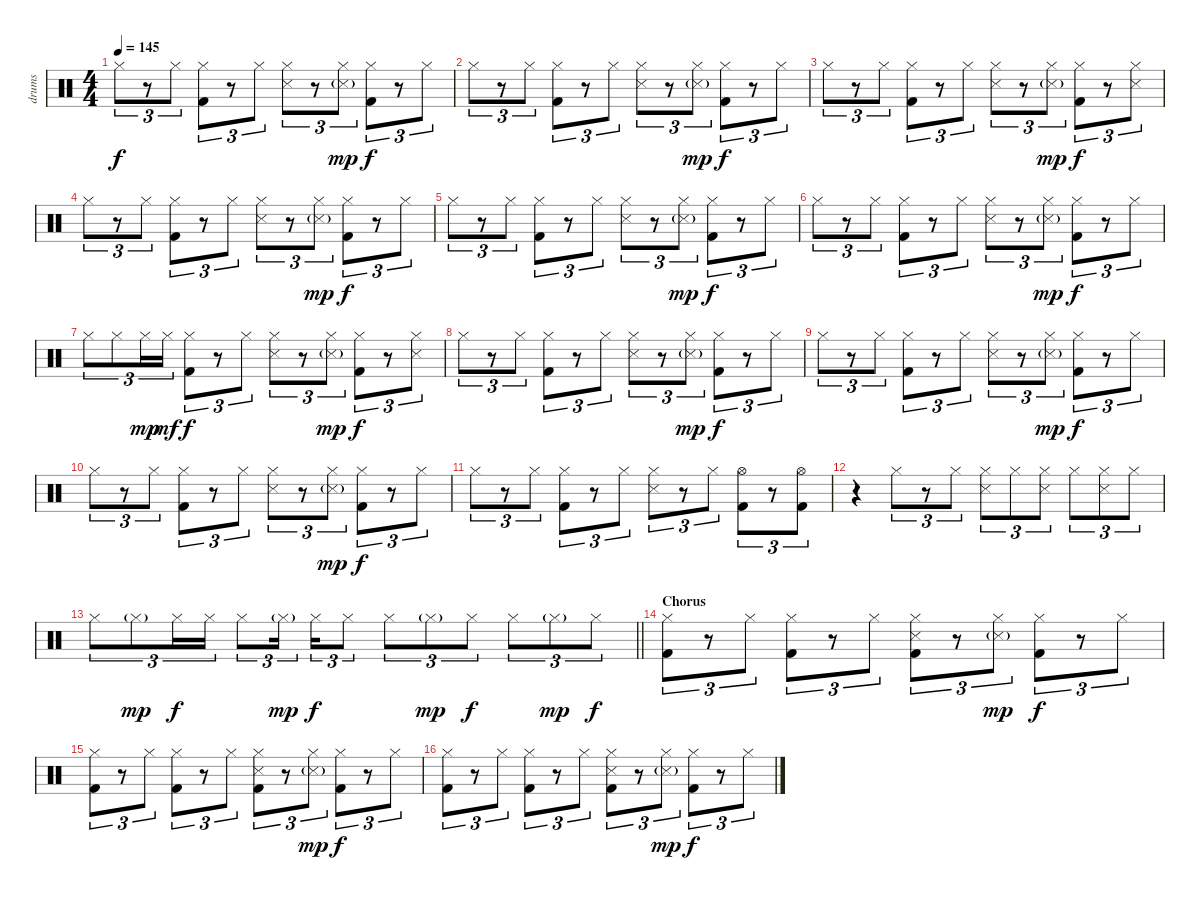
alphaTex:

\track ("drums" "drums") {instrument percussion}
\staff {score}
\articulation defaults
\ts (4 4)
\tempo 145
\clef neutral
\ks c "Hi-Hat (closed)".8{tu (3 2) dy f}
r.8{tu (3 2)} "Hi-Hat (closed)".8{tu (3 2)} ("Hi-Hat (closed)" "Kick (hit) 2").8{tu (3 2)} r.8{tu (3 2)} "Hi-Hat (closed)".8{tu (3 2)} ("Hi-Hat (closed)" "Snare (side stick) 3").8{tu (3 2)} r.8{tu (3 2)} ("Hi-Hat (closed)" "Snare (side stick) 3"{g}).8{tu (3 2) dy mp} ("Hi-Hat (closed)" "Kick (hit) 2").8{tu (3 2) dy f} r.8{tu (3 2)} "Hi-Hat (closed)".8{tu (3 2)} |
"Hi-Hat (closed)".8{tu (3 2)} r.8{tu (3 2)} "Hi-Hat (closed)".8{tu (3 2)} ("Hi-Hat (closed)" "Kick (hit) 2").8{tu (3 2)} r.8{tu (3 2)} "Hi-Hat (closed)".8{tu (3 2)} ("Hi-Hat (closed)" "Snare (side stick) 3").8{tu (3 2)} r.8{tu (3 2)} ("Hi-Hat (closed)" "Snare (side stick) 3"{g}).8{tu (3 2) dy mp} ("Hi-Hat (closed)" "Kick (hit) 2").8{tu (3 2) dy f} r.8{tu (3 2)} "Hi-Hat (closed)".8{tu (3 2)} |
"Hi-Hat (closed)".8{tu (3 2)} r.8{tu (3 2)} "Hi-Hat (closed)".8{tu (3 2)} ("Hi-Hat (closed)" "Kick (hit) 2").8{tu (3 2)} r.8{tu (3 2)} "Hi-Hat (closed)".8{tu (3 2)} ("Hi-Hat (closed)" "Snare (side stick) 3").8{tu (3 2)} r.8{tu (3 2)} ("Hi-Hat (closed)" "Snare (side stick) 3"{g}).8{tu (3 2) dy mp} ("Hi-Hat (closed)" "Kick (hit) 2").8{tu (3 2) dy f} r.8{tu (3 2)} ("Hi-Hat (closed)" "Snare (side stick) 3").8{tu (3 2)} |
"Hi-Hat (closed)".8{tu (3 2)} r.8{tu (3 2)} "Hi-Hat (closed)".8{tu (3 2)} ("Hi-Hat (closed)" "Kick (hit) 2").8{tu (3 2)} r.8{tu (3 2)} "Hi-Hat (closed)".8{tu (3 2)} ("Hi-Hat (closed)" "Snare (side stick) 3").8{tu (3 2)} r.8{tu (3 2)} ("Hi-Hat (closed)" "Snare (side stick) 3"{g}).8{tu (3 2) dy mp} ("Hi-Hat (closed)" "Kick (hit) 2").8{tu (3 2) dy f} r.8{tu (3 2)} "Hi-Hat (closed)".8{tu (3 2)} |
"Hi-Hat (closed)".8{tu (3 2)} r.8{tu (3 2)} "Hi-Hat (closed)".8{tu (3 2)} ("Hi-Hat (closed)" "Kick (hit) 2").8{tu (3 2)} r.8{tu (3 2)} "Hi-Hat (closed)".8{tu (3 2)} ("Hi-Hat (closed)" "Snare (side stick) 3").8{tu (3 2)} r.8{tu (3 2)} ("Hi-Hat (closed)" "Snare (side stick) 3"{g}).8{tu (3 2) dy mp} ("Hi-Hat (closed)" "Kick (hit) 2").8{tu (3 2) dy f} r.8{tu (3 2)} "Hi-Hat (closed)".8{tu (3 2)} |
"Hi-Hat (closed)".8{tu (3 2)} r.8{tu (3 2)} "Hi-Hat (closed)".8{tu (3 2)} ("Hi-Hat (closed)" "Kick (hit) 2").8{tu (3 2)} r.8{tu (3 2)} "Hi-Hat (closed)".8{tu (3 2)} ("Hi-Hat (closed)" "Snare (side stick) 3").8{tu (3 2)} r.8{tu (3 2)} ("Hi-Hat (closed)" "Snare (side stick) 3"{g}).8{tu (3 2) dy mp} ("Hi-Hat (closed)" "Kick (hit) 2").8{tu (3 2) dy f} r.8{tu (3 2)} "Hi-Hat (closed)".8{tu (3 2)} |
"Hi-Hat (closed)".8{tu (3 2)} "Hi-Hat (closed)".8{tu (3 2)} "Hi-Hat (closed)".16{tu (3 2) dy mp} "Hi-Hat (closed)".16{tu (3 2) dy mf} ("Hi-Hat (closed)" "Kick (hit) 2").8{tu (3 2) dy f} r.8{tu (3 2)} "Hi-Hat (closed)".8{tu (3 2)} ("Hi-Hat (closed)" "Snare (side stick) 3").8{tu (3 2)} r.8{tu (3 2)} ("Hi-Hat (closed)" "Snare (side stick) 3"{g}).8{tu (3 2) dy mp} ("Hi-Hat (closed)" "Kick (hit) 2").8{tu (3 2) dy f} r.8{tu (3 2)} ("Hi-Hat (closed)" "Snare (side stick) 3").8{tu (3 2)} |
"Hi-Hat (closed)".8{tu (3 2)} r.8{tu (3 2)} "Hi-Hat (closed)".8{tu (3 2)} ("Hi-Hat (closed)" "Kick (hit) 2").8{tu (3 2)} r.8{tu (3 2)} "Hi-Hat (closed)".8{tu (3 2)} ("Hi-Hat (closed)" "Snare (side stick) 3").8{tu (3 2)} r.8{tu (3 2)} ("Hi-Hat (closed)" "Snare (side stick) 3"{g}).8{tu (3 2) dy mp} ("Hi-Hat (closed)" "Kick (hit) 2").8{tu (3 2) dy f} r.8{tu (3 2)} "Hi-Hat (closed)".8{tu (3 2)} |
"Hi-Hat (closed)".8{tu (3 2)} r.8{tu (3 2)} "Hi-Hat (closed)".8{tu (3 2)} ("Hi-Hat (closed)" "Kick (hit) 2").8{tu (3 2)} r.8{tu (3 2)} "Hi-Hat (closed)".8{tu (3 2)} ("Hi-Hat (closed)" "Snare (side stick) 3").8{tu (3 2)} r.8{tu (3 2)} ("Hi-Hat (closed)" "Snare (side stick) 3"{g}).8{tu (3 2) dy mp} ("Hi-Hat (closed)" "Kick (hit) 2").8{tu (3 2) dy f} r.8{tu (3 2)} "Hi-Hat (closed)".8{tu (3 2)} |
"Hi-Hat (closed)".8{tu (3 2)} r.8{tu (3 2)} "Hi-Hat (closed)".8{tu (3 2)} ("Hi-Hat (closed)" "Kick (hit) 2").8{tu (3 2)} r.8{tu (3 2)} "Hi-Hat (closed)".8{tu (3 2)} ("Hi-Hat (closed)" "Snare (side stick) 3").8{tu (3 2)} r.8{tu (3 2)} ("Hi-Hat (closed)" "Snare (side stick) 3"{g}).8{tu (3 2) dy mp} ("Hi-Hat (closed)" "Kick (hit) 2").8{tu (3 2) dy f} r.8{tu (3 2)} "Hi-Hat (closed)".8{tu (3 2)} |
"Hi-Hat (closed)".8{tu (3 2)} r.8{tu (3 2)} "Hi-Hat (closed)".8{tu (3 2)} ("Hi-Hat (closed)" "Kick (hit) 2").8{tu (3 2)} r.8{tu (3 2)} "Hi-Hat (closed)".8{tu (3 2)} ("Hi-Hat (closed)" "Snare (side stick) 3").8{tu (3 2)} r.8{tu (3 2)} "Hi-Hat (closed)".8{tu (3 2)} ("Hi-Hat (open)" "Kick (hit) 2").8{tu (3 2)} r.8{tu (3 2)} ("Hi-Hat (open)" "Kick (hit) 2").8{tu (3 2)} |
r.4 "Hi-Hat (closed)".8{tu (3 2)} r.8{tu (3 2)} "Hi-Hat (closed)".8{tu (3 2)} ("Hi-Hat (closed)" "Snare (side stick) 3").8{tu (3 2)} "Hi-Hat (closed)".8{tu (3 2)} ("Hi-Hat (closed)" "Snare (side stick) 3").8{tu (3 2)} "Hi-Hat (closed)".8{tu (3 2)} ("Hi-Hat (closed)" "Snare (side stick) 3").8{tu (3 2)} "Hi-Hat (closed)".8{tu (3 2)} |
\barLineRight lightlight "Hi-Hat (closed)".8{tu (3 2)} "Hi-Hat (closed)"{g}.8{tu (3 2) dy mp} "Hi-Hat (closed)".16{tu (3 2) dy f} "Hi-Hat (closed)".16{tu (3 2)} "Hi-Hat (closed)".8{tu (3 2)} "Hi-Hat (closed)"{g}.16{tu (3 2) dy mp} "Hi-Hat (closed)".16{tu (3 2) dy f} "Hi-Hat (closed)".8{tu (3 2)} "Hi-Hat (closed)".8{tu (3 2)} "Hi-Hat (closed)"{g}.8{tu (3 2) dy mp} "Hi-Hat (closed)".8{tu (3 2) dy f} "Hi-Hat (closed)".8{tu (3 2)} "Hi-Hat (closed)"{g}.8{tu (3 2) dy mp} "Hi-Hat (closed)".8{tu (3 2) dy f}
|
\section ("" "Chorus")
("Hi-Hat (closed)" "Kick (hit) 2").8{tu (3 2)} r.8{tu (3 2)} "Hi-Hat (closed)".8{tu (3 2)} ("Hi-Hat (closed)" "Kick (hit) 2").8{tu (3 2)} r.8{tu (3 2)} "Hi-Hat (closed)".8{tu (3 2)} ("Hi-Hat (closed)" "Snare (side stick) 3" "Kick (hit) 2").8{tu (3 2)} r.8{tu (3 2)} ("Hi-Hat (closed)" "Snare (side stick) 3"{g}).8{tu (3 2) dy mp} ("Hi-Hat (closed)" "Kick (hit) 2").8{tu (3 2) dy f} r.8{tu (3 2)} "Hi-Hat (closed)".8{tu (3 2)} |
("Hi-Hat (closed)" "Kick (hit) 2").8{tu (3 2)} r.8{tu (3 2)} "Hi-Hat (closed)".8{tu (3 2)} ("Hi-Hat (closed)" "Kick (hit) 2").8{tu (3 2)} r.8{tu (3 2)} "Hi-Hat (closed)".8{tu (3 2)} ("Hi-Hat (closed)" "Snare (side stick) 3" "Kick (hit) 2").8{tu (3 2)} r.8{tu (3 2)} ("Hi-Hat (closed)" "Snare (side stick) 3"{g}).8{tu (3 2) dy mp} ("Hi-Hat (closed)" "Kick (hit) 2").8{tu (3 2) dy f} r.8{tu (3 2)} "Hi-Hat (closed)".8{tu (3 2)} |
("Hi-Hat (closed)" "Kick (hit) 2").8{tu (3 2)} r.8{tu (3 2)} "Hi-Hat (closed)".8{tu (3 2)} ("Hi-Hat (closed)" "Kick (hit) 2").8{tu (3 2)} r.8{tu (3 2)} "Hi-Hat (closed)".8{tu (3 2)} ("Hi-Hat (closed)" "Snare (side stick) 3" "Kick (hit) 2").8{tu (3 2)} r.8{tu (3 2)} ("Hi-Hat (closed)" "Snare (side stick) 3"{g}).8{tu (3 2) dy mp} ("Hi-Hat (closed)" "Kick (hit) 2").8{tu (3 2) dy f} r.8{tu (3 2)} "Hi-Hat (closed)".8{tu (3 2)}
